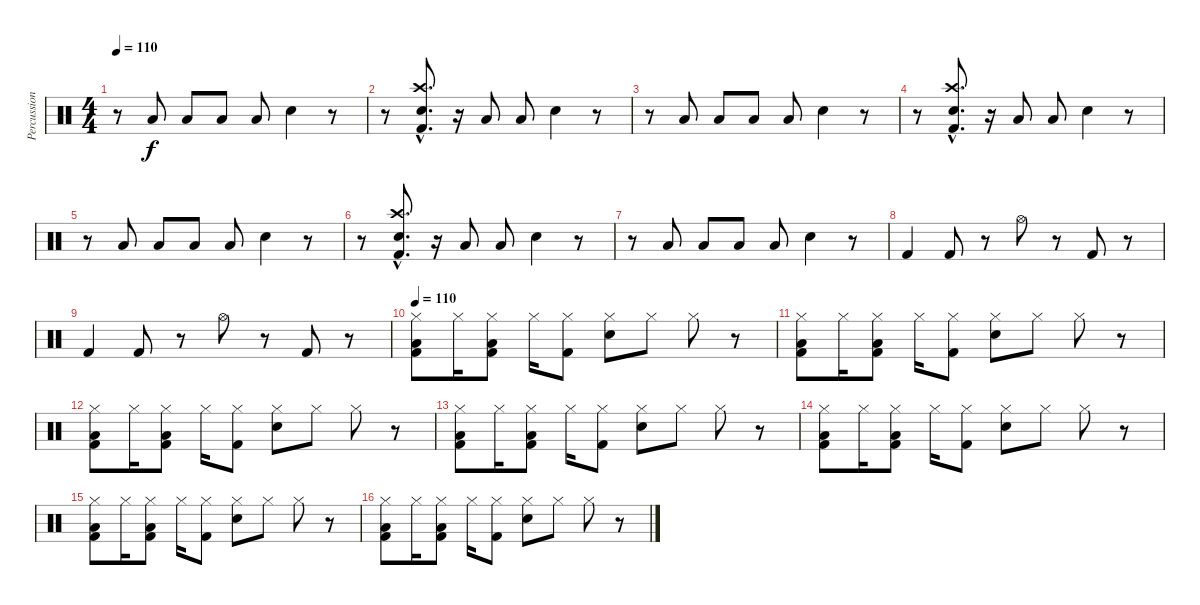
\track ("Percussioni" "Percussion") {instrument percussion}
\staff {score}
\articulation defaults
\ts (4 4)
\tempo 110
\clef neutral
\ks c
r.8{dy f} "Low Tom (hit)".8 "Low Tom (hit)".8 "Low Tom (hit)".8 "Low Tom (hit)".8 "Electric Snare (hit)".4 r.8 |
r.8 ("Crash high (hit)"{hac} "Electric Snare (hit)"{hac} "Kick (hit) 2"{hac}).8{d} r.16 "Low Tom (hit)".8 "Low Tom (hit)".8 "Electric Snare (hit)".4 r.8 |
r.8 "Low Tom (hit)".8 "Low Tom (hit)".8 "Low Tom (hit)".8 "Low Tom (hit)".8 "Electric Snare (hit)".4 r.8 |
r.8 ("Crash high (hit)"{hac} "Electric Snare (hit)"{hac} "Kick (hit) 2"{hac}).8{d} r.16 "Low Tom (hit)".8 "Low Tom (hit)".8 "Electric Snare (hit)".4 r.8 |
r.8 "Low Tom (hit)".8 "Low Tom (hit)".8 "Low Tom (hit)".8 "Low Tom (hit)".8 "Electric Snare (hit)".4 r.8 |
r.8 ("Crash high (hit)"{hac} "Electric Snare (hit)"{hac} "Kick (hit) 2"{hac}).8{d} r.16 "Low Tom (hit)".8 "Low Tom (hit)".8 "Electric Snare (hit)".4 r.8 |
r.8 "Low Tom (hit)".8 "Low Tom (hit)".8 "Low Tom (hit)".8 "Low Tom (hit)".8 "Electric Snare (hit)".4 r.8 |
"Kick (hit) 2".4 "Kick (hit) 2".8 r.8 "Hi-Hat (open)".8 r.8 "Kick (hit) 2".8 r.8 |
"Kick (hit) 2".4 "Kick (hit) 2".8 r.8 "Hi-Hat (open)".8 r.8 "Kick (hit) 2".8 r.8 |
\tempo 110
("Hi-Hat (closed)" "Low Tom (hit)" "Kick (hit) 2").8 "Hi-Hat (closed)".16 ("Hi-Hat (closed)" "Low Tom (hit)" "Kick (hit) 2").8 "Hi-Hat (closed)".16 ("Hi-Hat (closed)" "Kick (hit) 2").8 ("Hi-Hat (closed)" "Electric Snare (hit)").8 "Hi-Hat (closed)".8 "Hi-Hat (closed)".8 r.8 |
("Hi-Hat (closed)" "Low Tom (hit)" "Kick (hit) 2").8 "Hi-Hat (closed)".16 ("Hi-Hat (closed)" "Low Tom (hit)" "Kick (hit) 2").8 "Hi-Hat (closed)".16 ("Hi-Hat (closed)" "Kick (hit) 2").8 ("Hi-Hat (closed)" "Electric Snare (hit)").8 "Hi-Hat (closed)".8 "Hi-Hat (closed)".8 r.8 |
("Hi-Hat (closed)" "Low Tom (hit)" "Kick (hit) 2").8 "Hi-Hat (closed)".16 ("Hi-Hat (closed)" "Low Tom (hit)" "Kick (hit) 2").8 "Hi-Hat (closed)".16 ("Hi-Hat (closed)" "Kick (hit) 2").8 ("Hi-Hat (closed)" "Electric Snare (hit)").8 "Hi-Hat (closed)".8 "Hi-Hat (closed)".8 r.8 |
("Hi-Hat (closed)" "Low Tom (hit)" "Kick (hit) 2").8 "Hi-Hat (closed)".16 ("Hi-Hat (closed)" "Low Tom (hit)" "Kick (hit) 2").8 "Hi-Hat (closed)".16 ("Hi-Hat (closed)" "Kick (hit) 2").8 ("Hi-Hat (closed)" "Electric Snare (hit)").8 "Hi-Hat (closed)".8 "Hi-Hat (closed)".8 r.8 |
("Hi-Hat (closed)" "Low Tom (hit)" "Kick (hit) 2").8 "Hi-Hat (closed)".16 ("Hi-Hat (closed)" "Low Tom (hit)" "Kick (hit) 2").8 "Hi-Hat (closed)".16 ("Hi-Hat (closed)" "Kick (hit) 2").8 ("Hi-Hat (closed)" "Electric Snare (hit)").8 "Hi-Hat (closed)".8 "Hi-Hat (closed)".8 r.8 |
("Hi-Hat (closed)" "Low Tom (hit)" "Kick (hit) 2").8 "Hi-Hat (closed)".16 ("Hi-Hat (closed)" "Low Tom (hit)" "Kick (hit) 2").8 "Hi-Hat (closed)".16 ("Hi-Hat (closed)" "Kick (hit) 2").8 ("Hi-Hat (closed)" "Electric Snare (hit)").8 "Hi-Hat (closed)".8 "Hi-Hat (closed)".8 r.8 |
("Hi-Hat (closed)" "Low Tom (hit)" "Kick (hit) 2").8 "Hi-Hat (closed)".16 ("Hi-Hat (closed)" "Low Tom (hit)" "Kick (hit) 2").8 "Hi-Hat (closed)".16 ("Hi-Hat (closed)" "Kick (hit) 2").8 ("Hi-Hat (closed)" "Electric Snare (hit)").8 "Hi-Hat (closed)".8 "Hi-Hat (closed)".8 r.8
